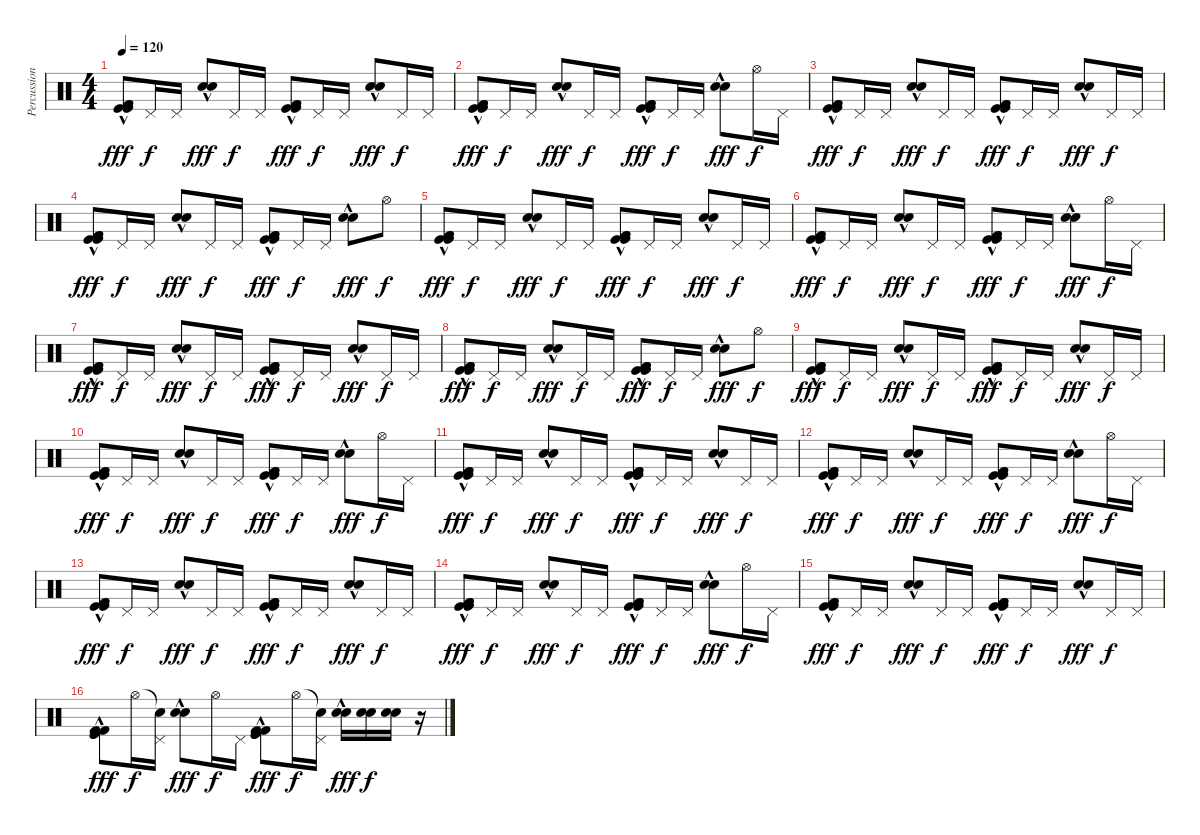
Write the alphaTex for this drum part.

\track ("Percussion" "Percussion") {instrument percussion}
\staff {score}
\articulation defaults
\ts (4 4)
\tempo 120
\clef neutral
\ks c
("Kick (hit)" "Kick (hit) 2" "Kick (hit)"{hac} "Kick (hit) 2"{hac}).8{dy fff} "Pedal Hi-Hat (hit)".16{dy f} "Pedal Hi-Hat (hit)".16 ("Electric Snare (hit)"{hac} "Snare (hit) 2"{hac}).8{dy fff} "Pedal Hi-Hat (hit)".16{dy f} "Pedal Hi-Hat (hit)".16 ("Kick (hit)" "Kick (hit) 2" "Kick (hit)"{hac} "Kick (hit) 2"{hac}).8{dy fff} "Pedal Hi-Hat (hit)".16{dy f} "Pedal Hi-Hat (hit)".16 ("Electric Snare (hit)"{hac} "Snare (hit) 2"{hac}).8{dy fff} "Pedal Hi-Hat (hit)".16{dy f} "Pedal Hi-Hat (hit)".16 |
("Kick (hit)" "Kick (hit) 2" "Kick (hit)"{hac} "Kick (hit) 2"{hac}).8{dy fff} "Pedal Hi-Hat (hit)".16{dy f} "Pedal Hi-Hat (hit)".16 ("Electric Snare (hit)"{hac} "Snare (hit) 2"{hac}).8{dy fff} "Pedal Hi-Hat (hit)".16{dy f} "Pedal Hi-Hat (hit)".16 ("Kick (hit)" "Kick (hit) 2" "Kick (hit)"{hac} "Kick (hit) 2"{hac}).8{dy fff} "Pedal Hi-Hat (hit)".16{dy f} "Pedal Hi-Hat (hit)".16 ("Electric Snare (hit)"{hac} "Snare (hit) 2"{hac}).8{dy fff} "Hi-Hat (open)".16{dy f} "Pedal Hi-Hat (hit)".16 |
("Kick (hit)" "Kick (hit) 2" "Kick (hit)"{hac} "Kick (hit) 2"{hac}).8{dy fff} "Pedal Hi-Hat (hit)".16{dy f} "Pedal Hi-Hat (hit)".16 ("Electric Snare (hit)"{hac} "Snare (hit) 2"{hac}).8{dy fff} "Pedal Hi-Hat (hit)".16{dy f} "Pedal Hi-Hat (hit)".16 ("Kick (hit)" "Kick (hit) 2" "Kick (hit)"{hac} "Kick (hit) 2"{hac}).8{dy fff} "Pedal Hi-Hat (hit)".16{dy f} "Pedal Hi-Hat (hit)".16 ("Electric Snare (hit)"{hac} "Snare (hit) 2"{hac}).8{dy fff} "Pedal Hi-Hat (hit)".16{dy f} "Pedal Hi-Hat (hit)".16 |
("Kick (hit)" "Kick (hit) 2" "Kick (hit)"{hac} "Kick (hit) 2"{hac}).8{dy fff} "Pedal Hi-Hat (hit)".16{dy f} "Pedal Hi-Hat (hit)".16 ("Electric Snare (hit)"{hac} "Snare (hit) 2"{hac}).8{dy fff} "Pedal Hi-Hat (hit)".16{dy f} "Pedal Hi-Hat (hit)".16 ("Kick (hit)" "Kick (hit) 2" "Kick (hit)"{hac} "Kick (hit) 2"{hac}).8{dy fff} "Pedal Hi-Hat (hit)".16{dy f} "Pedal Hi-Hat (hit)".16 ("Electric Snare (hit)"{hac} "Snare (hit) 2"{hac}).8{dy fff} "Hi-Hat (open)".8{dy f} |
("Kick (hit)" "Kick (hit) 2" "Kick (hit)"{hac} "Kick (hit) 2"{hac}).8{dy fff} "Pedal Hi-Hat (hit)".16{dy f} "Pedal Hi-Hat (hit)".16 ("Electric Snare (hit)"{hac} "Snare (hit) 2"{hac}).8{dy fff} "Pedal Hi-Hat (hit)".16{dy f} "Pedal Hi-Hat (hit)".16 ("Kick (hit)" "Kick (hit) 2" "Kick (hit)"{hac} "Kick (hit) 2"{hac}).8{dy fff} "Pedal Hi-Hat (hit)".16{dy f} "Pedal Hi-Hat (hit)".16 ("Electric Snare (hit)"{hac} "Snare (hit) 2"{hac}).8{dy fff} "Pedal Hi-Hat (hit)".16{dy f} "Pedal Hi-Hat (hit)".16 |
("Kick (hit)" "Kick (hit) 2" "Kick (hit)"{hac} "Kick (hit) 2"{hac}).8{dy fff} "Pedal Hi-Hat (hit)".16{dy f} "Pedal Hi-Hat (hit)".16 ("Electric Snare (hit)"{hac} "Snare (hit) 2"{hac}).8{dy fff} "Pedal Hi-Hat (hit)".16{dy f} "Pedal Hi-Hat (hit)".16 ("Kick (hit)" "Kick (hit) 2" "Kick (hit)"{hac} "Kick (hit) 2"{hac}).8{dy fff} "Pedal Hi-Hat (hit)".16{dy f} "Pedal Hi-Hat (hit)".16 ("Electric Snare (hit)"{hac} "Snare (hit) 2"{hac}).8{dy fff} "Hi-Hat (open)".16{dy f} "Pedal Hi-Hat (hit)".16 |
("Kick (hit)" "Kick (hit) 2" "Kick (hit)"{hac} "Kick (hit) 2"{hac}).8{dy fff} "Pedal Hi-Hat (hit)".16{dy f} "Pedal Hi-Hat (hit)".16 ("Electric Snare (hit)"{hac} "Snare (hit) 2"{hac}).8{dy fff} "Pedal Hi-Hat (hit)".16{dy f} "Pedal Hi-Hat (hit)".16 ("Kick (hit)" "Kick (hit) 2" "Kick (hit)"{hac} "Kick (hit) 2"{hac}).8{dy fff} "Pedal Hi-Hat (hit)".16{dy f} "Pedal Hi-Hat (hit)".16 ("Electric Snare (hit)"{hac} "Snare (hit) 2"{hac}).8{dy fff} "Pedal Hi-Hat (hit)".16{dy f} "Pedal Hi-Hat (hit)".16 |
("Kick (hit)" "Kick (hit) 2" "Kick (hit)"{hac} "Kick (hit) 2"{hac}).8{dy fff} "Pedal Hi-Hat (hit)".16{dy f} "Pedal Hi-Hat (hit)".16 ("Electric Snare (hit)"{hac} "Snare (hit) 2"{hac}).8{dy fff} "Pedal Hi-Hat (hit)".16{dy f} "Pedal Hi-Hat (hit)".16 ("Kick (hit)" "Kick (hit) 2" "Kick (hit)"{hac} "Kick (hit) 2"{hac}).8{dy fff} "Pedal Hi-Hat (hit)".16{dy f} "Pedal Hi-Hat (hit)".16 ("Electric Snare (hit)"{hac} "Snare (hit) 2"{hac}).8{dy fff} "Hi-Hat (open)".8{dy f} |
("Kick (hit)" "Kick (hit) 2" "Kick (hit)"{hac} "Kick (hit) 2"{hac}).8{dy fff} "Pedal Hi-Hat (hit)".16{dy f} "Pedal Hi-Hat (hit)".16 ("Electric Snare (hit)"{hac} "Snare (hit) 2"{hac}).8{dy fff} "Pedal Hi-Hat (hit)".16{dy f} "Pedal Hi-Hat (hit)".16 ("Kick (hit)" "Kick (hit) 2" "Kick (hit)"{hac} "Kick (hit) 2"{hac}).8{dy fff} "Pedal Hi-Hat (hit)".16{dy f} "Pedal Hi-Hat (hit)".16 ("Electric Snare (hit)"{hac} "Snare (hit) 2"{hac}).8{dy fff} "Pedal Hi-Hat (hit)".16{dy f} "Pedal Hi-Hat (hit)".16 |
("Kick (hit)" "Kick (hit) 2" "Kick (hit)"{hac} "Kick (hit) 2"{hac}).8{dy fff} "Pedal Hi-Hat (hit)".16{dy f} "Pedal Hi-Hat (hit)".16 ("Electric Snare (hit)"{hac} "Snare (hit) 2"{hac}).8{dy fff} "Pedal Hi-Hat (hit)".16{dy f} "Pedal Hi-Hat (hit)".16 ("Kick (hit)" "Kick (hit) 2" "Kick (hit)"{hac} "Kick (hit) 2"{hac}).8{dy fff} "Pedal Hi-Hat (hit)".16{dy f} "Pedal Hi-Hat (hit)".16 ("Electric Snare (hit)"{hac} "Snare (hit) 2"{hac}).8{dy fff} "Hi-Hat (open)".16{dy f} "Pedal Hi-Hat (hit)".16 |
("Kick (hit)" "Kick (hit) 2" "Kick (hit)"{hac} "Kick (hit) 2"{hac}).8{dy fff} "Pedal Hi-Hat (hit)".16{dy f} "Pedal Hi-Hat (hit)".16 ("Electric Snare (hit)"{hac} "Snare (hit) 2"{hac}).8{dy fff} "Pedal Hi-Hat (hit)".16{dy f} "Pedal Hi-Hat (hit)".16 ("Kick (hit)" "Kick (hit) 2" "Kick (hit)"{hac} "Kick (hit) 2"{hac}).8{dy fff} "Pedal Hi-Hat (hit)".16{dy f} "Pedal Hi-Hat (hit)".16 ("Electric Snare (hit)"{hac} "Snare (hit) 2"{hac}).8{dy fff} "Pedal Hi-Hat (hit)".16{dy f} "Pedal Hi-Hat (hit)".16 |
("Kick (hit)" "Kick (hit) 2" "Kick (hit)"{hac} "Kick (hit) 2"{hac}).8{dy fff} "Pedal Hi-Hat (hit)".16{dy f} "Pedal Hi-Hat (hit)".16 ("Electric Snare (hit)"{hac} "Snare (hit) 2"{hac}).8{dy fff} "Pedal Hi-Hat (hit)".16{dy f} "Pedal Hi-Hat (hit)".16 ("Kick (hit)" "Kick (hit) 2" "Kick (hit)"{hac} "Kick (hit) 2"{hac}).8{dy fff} "Pedal Hi-Hat (hit)".16{dy f} "Pedal Hi-Hat (hit)".16 ("Electric Snare (hit)"{hac} "Snare (hit) 2"{hac}).8{dy fff} "Hi-Hat (open)".16{dy f} "Pedal Hi-Hat (hit)".16 |
("Kick (hit)" "Kick (hit) 2" "Kick (hit)"{hac} "Kick (hit) 2"{hac}).8{dy fff} "Pedal Hi-Hat (hit)".16{dy f} "Pedal Hi-Hat (hit)".16 ("Electric Snare (hit)"{hac} "Snare (hit) 2"{hac}).8{dy fff} "Pedal Hi-Hat (hit)".16{dy f} "Pedal Hi-Hat (hit)".16 ("Kick (hit)" "Kick (hit) 2" "Kick (hit)"{hac} "Kick (hit) 2"{hac}).8{dy fff} "Pedal Hi-Hat (hit)".16{dy f} "Pedal Hi-Hat (hit)".16 ("Electric Snare (hit)"{hac} "Snare (hit) 2"{hac}).8{dy fff} "Pedal Hi-Hat (hit)".16{dy f} "Pedal Hi-Hat (hit)".16 |
("Kick (hit)" "Kick (hit) 2" "Kick (hit)"{hac} "Kick (hit) 2"{hac}).8{dy fff} "Pedal Hi-Hat (hit)".16{dy f} "Pedal Hi-Hat (hit)".16 ("Electric Snare (hit)"{hac} "Snare (hit) 2"{hac}).8{dy fff} "Pedal Hi-Hat (hit)".16{dy f} "Pedal Hi-Hat (hit)".16 ("Kick (hit)" "Kick (hit) 2" "Kick (hit)"{hac} "Kick (hit) 2"{hac}).8{dy fff} "Pedal Hi-Hat (hit)".16{dy f} "Pedal Hi-Hat (hit)".16 ("Electric Snare (hit)"{hac} "Snare (hit) 2"{hac}).8{dy fff} "Hi-Hat (open)".16{dy f} "Pedal Hi-Hat (hit)".16 |
("Kick (hit)" "Kick (hit) 2" "Kick (hit)"{hac} "Kick (hit) 2"{hac}).8{dy fff} "Pedal Hi-Hat (hit)".16{dy f} "Pedal Hi-Hat (hit)".16 ("Electric Snare (hit)"{hac} "Snare (hit) 2"{hac}).8{dy fff} "Pedal Hi-Hat (hit)".16{dy f} "Pedal Hi-Hat (hit)".16 ("Kick (hit)" "Kick (hit) 2" "Kick (hit)"{hac} "Kick (hit) 2"{hac}).8{dy fff} "Pedal Hi-Hat (hit)".16{dy f} "Pedal Hi-Hat (hit)".16 ("Electric Snare (hit)"{hac} "Snare (hit) 2"{hac}).8{dy fff} "Pedal Hi-Hat (hit)".16{dy f} "Pedal Hi-Hat (hit)".16 |
("Kick (hit)" "Kick (hit) 2" "Kick (hit)"{hac} "Kick (hit) 2"{hac}).8{dy fff} "Hi-Hat (open)".16{dy f} ("Snare (hit)"{t} "Pedal Hi-Hat (hit)").16 ("Electric Snare (hit)"{hac} "Snare (hit) 2"{hac}).8{dy fff} "Hi-Hat (open)".16{dy f} "Pedal Hi-Hat (hit)".16 ("Kick (hit)" "Kick (hit) 2" "Kick (hit)"{hac} "Kick (hit) 2"{hac}).8{dy fff} "Hi-Hat (open)".16{dy f} ("Snare (hit)"{t} "Pedal Hi-Hat (hit)").16 ("Electric Snare (hit)"{hac} "Snare (hit) 2"{hac}).16{dy fff} ("Electric Snare (hit)" "Snare (hit) 2").16{dy f} ("Electric Snare (hit)" "Snare (hit) 2").16 r.16
